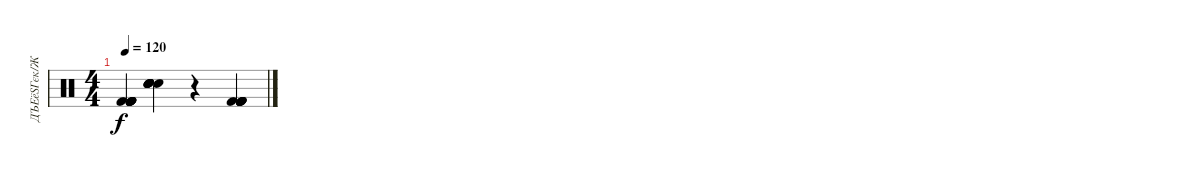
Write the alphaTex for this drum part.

\track ("ДЪЕёЅГєк/ЖК" "ДЪЕёЅГєк/Ж") {instrument percussion}
\staff {score}
\articulation defaults
\ts (4 4)
\tempo 120
\clef neutral
\ks c
("Kick (hit) 2" "Kick (hit) 2" "Kick (hit) 2" "Kick (hit) 2" "Kick (hit) 2" "Kick (hit) 2").4{dy f} ("Hand Clap (hit)" "Hand Clap (hit)" "Hand Clap (hit)" "Hand Clap (hit)" "Hand Clap (hit)" "Hand Clap (hit)").4 r.4 ("Kick (hit) 2" "Kick (hit) 2" "Kick (hit) 2" "Kick (hit) 2" "Kick (hit) 2" "Kick (hit) 2").4
